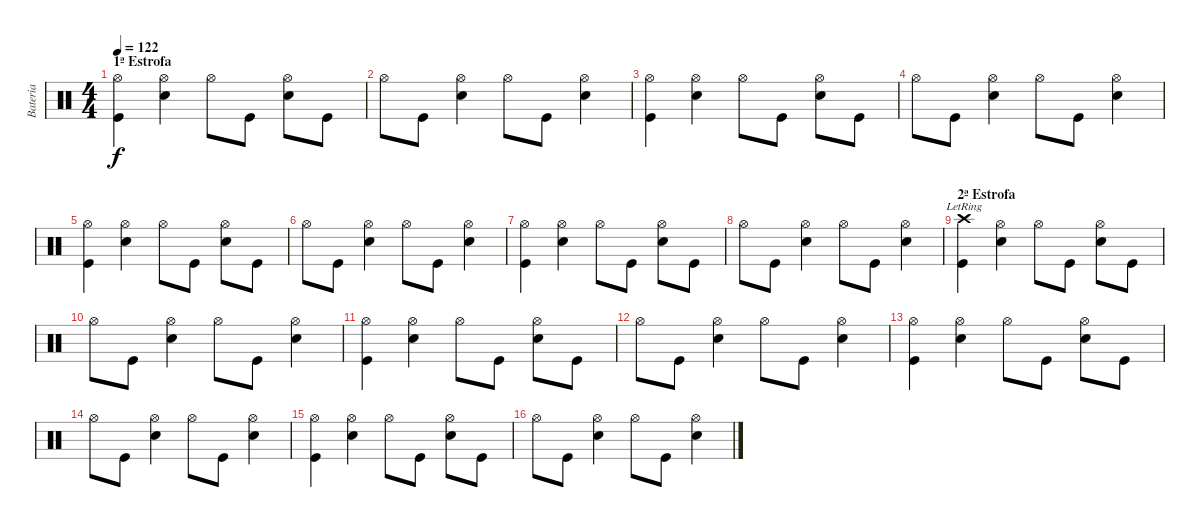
\track ("Bateria" "Bateria") {instrument percussion}
\staff {score}
\articulation defaults
\ts (4 4)
\section ("" "1ª Estrofa")
\tempo 122
\clef neutral
\ks c
("Hi-Hat (open)" "Kick (hit)").4{dy f} ("Hi-Hat (open)" "Snare (hit) 2").4 "Hi-Hat (open)".8 "Kick (hit)".8 ("Hi-Hat (open)" "Snare (hit) 2").8 "Kick (hit)".8 |
"Hi-Hat (open)".8 "Kick (hit)".8 ("Hi-Hat (open)" "Snare (hit) 2").4 "Hi-Hat (open)".8 "Kick (hit)".8 ("Hi-Hat (open)" "Snare (hit) 2").4 |
("Hi-Hat (open)" "Kick (hit)").4 ("Hi-Hat (open)" "Snare (hit) 2").4 "Hi-Hat (open)".8 "Kick (hit)".8 ("Hi-Hat (open)" "Snare (hit) 2").8 "Kick (hit)".8 |
"Hi-Hat (open)".8 "Kick (hit)".8 ("Hi-Hat (open)" "Snare (hit) 2").4 "Hi-Hat (open)".8 "Kick (hit)".8 ("Hi-Hat (open)" "Snare (hit) 2").4 |
("Hi-Hat (open)" "Kick (hit)").4 ("Hi-Hat (open)" "Snare (hit) 2").4 "Hi-Hat (open)".8 "Kick (hit)".8 ("Hi-Hat (open)" "Snare (hit) 2").8 "Kick (hit)".8 |
"Hi-Hat (open)".8 "Kick (hit)".8 ("Hi-Hat (open)" "Snare (hit) 2").4 "Hi-Hat (open)".8 "Kick (hit)".8 ("Hi-Hat (open)" "Snare (hit) 2").4 |
("Hi-Hat (open)" "Kick (hit)").4 ("Hi-Hat (open)" "Snare (hit) 2").4 "Hi-Hat (open)".8 "Kick (hit)".8 ("Hi-Hat (open)" "Snare (hit) 2").8 "Kick (hit)".8 |
"Hi-Hat (open)".8 "Kick (hit)".8 ("Hi-Hat (open)" "Snare (hit) 2").4 "Hi-Hat (open)".8 "Kick (hit)".8 ("Hi-Hat (open)" "Snare (hit) 2").4 |
\section ("" "2ª Estrofa")
("Crash high (hit)"{lr} "Kick (hit)").4 ("Hi-Hat (open)" "Snare (hit) 2").4 "Hi-Hat (open)".8 "Kick (hit)".8 ("Hi-Hat (open)" "Snare (hit) 2").8 "Kick (hit)".8 |
"Hi-Hat (open)".8 "Kick (hit)".8 ("Hi-Hat (open)" "Snare (hit) 2").4 "Hi-Hat (open)".8 "Kick (hit)".8 ("Hi-Hat (open)" "Snare (hit) 2").4 |
("Hi-Hat (open)" "Kick (hit)").4 ("Hi-Hat (open)" "Snare (hit) 2").4 "Hi-Hat (open)".8 "Kick (hit)".8 ("Hi-Hat (open)" "Snare (hit) 2").8 "Kick (hit)".8 |
"Hi-Hat (open)".8 "Kick (hit)".8 ("Hi-Hat (open)" "Snare (hit) 2").4 "Hi-Hat (open)".8 "Kick (hit)".8 ("Hi-Hat (open)" "Snare (hit) 2").4 |
("Hi-Hat (open)" "Kick (hit)").4 ("Hi-Hat (open)" "Snare (hit) 2").4 "Hi-Hat (open)".8 "Kick (hit)".8 ("Hi-Hat (open)" "Snare (hit) 2").8 "Kick (hit)".8 |
"Hi-Hat (open)".8 "Kick (hit)".8 ("Hi-Hat (open)" "Snare (hit) 2").4 "Hi-Hat (open)".8 "Kick (hit)".8 ("Hi-Hat (open)" "Snare (hit) 2").4 |
("Hi-Hat (open)" "Kick (hit)").4 ("Hi-Hat (open)" "Snare (hit) 2").4 "Hi-Hat (open)".8 "Kick (hit)".8 ("Hi-Hat (open)" "Snare (hit) 2").8 "Kick (hit)".8 |
"Hi-Hat (open)".8 "Kick (hit)".8 ("Hi-Hat (open)" "Snare (hit) 2").4 "Hi-Hat (open)".8 "Kick (hit)".8 ("Hi-Hat (open)" "Snare (hit) 2").4
